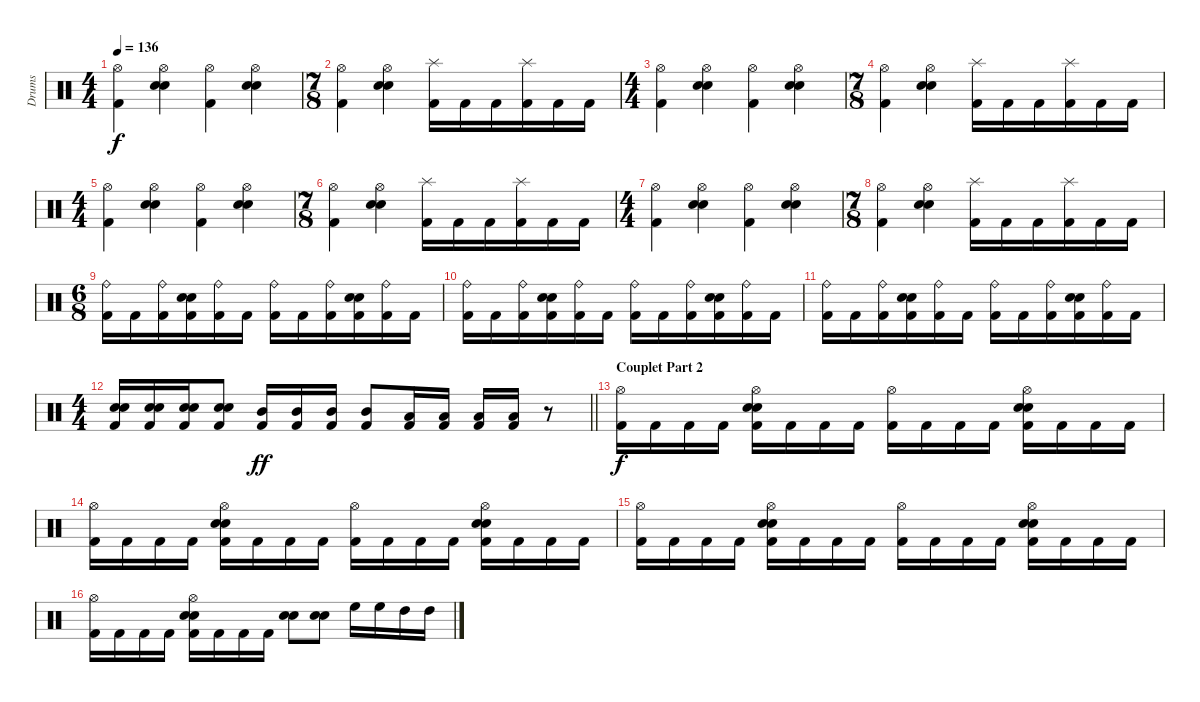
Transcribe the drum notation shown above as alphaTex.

\track ("Drums" "Drums") {instrument percussion}
\staff {score}
\articulation defaults
\ts (4 4)
\tempo 136
\clef neutral
\ks c
("Hi-Hat (open)" "Kick (hit) 2").4{dy f} ("Hi-Hat (open)" "Electric Snare (hit)" "Snare (hit) 2").4 ("Hi-Hat (open)" "Kick (hit) 2").4 ("Hi-Hat (open)" "Electric Snare (hit)" "Snare (hit) 2").4 |
\ts (7 8)
("Hi-Hat (open)" "Kick (hit) 2").4 ("Hi-Hat (open)" "Electric Snare (hit)" "Snare (hit) 2").4 ("Splash (hit)" "Kick (hit) 2").16 "Kick (hit) 2".16 "Kick (hit) 2".16 ("Splash (hit)" "Kick (hit) 2").16 "Kick (hit) 2".16 "Kick (hit) 2".16 |
\ts (4 4)
("Hi-Hat (open)" "Kick (hit) 2").4 ("Hi-Hat (open)" "Electric Snare (hit)" "Snare (hit) 2").4 ("Hi-Hat (open)" "Kick (hit) 2").4 ("Hi-Hat (open)" "Electric Snare (hit)" "Snare (hit) 2").4 |
\ts (7 8)
("Hi-Hat (open)" "Kick (hit) 2").4 ("Hi-Hat (open)" "Electric Snare (hit)" "Snare (hit) 2").4 ("Splash (hit)" "Kick (hit) 2").16 "Kick (hit) 2".16 "Kick (hit) 2".16 ("Splash (hit)" "Kick (hit) 2").16 "Kick (hit) 2".16 "Kick (hit) 2".16 |
\ts (4 4)
("Hi-Hat (open)" "Kick (hit) 2").4 ("Hi-Hat (open)" "Electric Snare (hit)" "Snare (hit) 2").4 ("Hi-Hat (open)" "Kick (hit) 2").4 ("Hi-Hat (open)" "Electric Snare (hit)" "Snare (hit) 2").4 |
\ts (7 8)
("Hi-Hat (open)" "Kick (hit) 2").4 ("Hi-Hat (open)" "Electric Snare (hit)" "Snare (hit) 2").4 ("Splash (hit)" "Kick (hit) 2").16 "Kick (hit) 2".16 "Kick (hit) 2".16 ("Splash (hit)" "Kick (hit) 2").16 "Kick (hit) 2".16 "Kick (hit) 2".16 |
\ts (4 4)
("Hi-Hat (open)" "Kick (hit) 2").4 ("Hi-Hat (open)" "Electric Snare (hit)" "Snare (hit) 2").4 ("Hi-Hat (open)" "Kick (hit) 2").4 ("Hi-Hat (open)" "Electric Snare (hit)" "Snare (hit) 2").4 |
\ts (7 8)
("Hi-Hat (open)" "Kick (hit) 2").4 ("Hi-Hat (open)" "Electric Snare (hit)" "Snare (hit) 2").4 ("Splash (hit)" "Kick (hit) 2").16 "Kick (hit) 2".16 "Kick (hit) 2".16 ("Splash (hit)" "Kick (hit) 2").16 "Kick (hit) 2".16 "Kick (hit) 2".16 |
\ts (6 8)
("Ride (bell)" "Kick (hit) 2").16 "Kick (hit) 2".16 ("Ride (bell)" "Kick (hit) 2").16 ("Electric Snare (hit)" "Snare (hit) 2" "Kick (hit) 2").16 ("Ride (bell)" "Kick (hit) 2").16 "Kick (hit) 2".16 ("Ride (bell)" "Kick (hit) 2").16 "Kick (hit) 2".16 ("Ride (bell)" "Kick (hit) 2").16 ("Electric Snare (hit)" "Snare (hit) 2" "Kick (hit) 2").16 ("Ride (bell)" "Kick (hit) 2").16 "Kick (hit) 2".16 |
("Ride (bell)" "Kick (hit) 2").16 "Kick (hit) 2".16 ("Ride (bell)" "Kick (hit) 2").16 ("Electric Snare (hit)" "Snare (hit) 2" "Kick (hit) 2").16 ("Ride (bell)" "Kick (hit) 2").16 "Kick (hit) 2".16 ("Ride (bell)" "Kick (hit) 2").16 "Kick (hit) 2".16 ("Ride (bell)" "Kick (hit) 2").16 ("Electric Snare (hit)" "Snare (hit) 2" "Kick (hit) 2").16 ("Ride (bell)" "Kick (hit) 2").16 "Kick (hit) 2".16 |
("Ride (bell)" "Kick (hit) 2").16 "Kick (hit) 2".16 ("Ride (bell)" "Kick (hit) 2").16 ("Electric Snare (hit)" "Snare (hit) 2" "Kick (hit) 2").16 ("Ride (bell)" "Kick (hit) 2").16 "Kick (hit) 2".16 ("Ride (bell)" "Kick (hit) 2").16 "Kick (hit) 2".16 ("Ride (bell)" "Kick (hit) 2").16 ("Electric Snare (hit)" "Snare (hit) 2" "Kick (hit) 2").16 ("Ride (bell)" "Kick (hit) 2").16 "Kick (hit) 2".16 |
\ts (4 4)
\barLineRight lightlight
("Electric Snare (hit)" "Snare (hit) 2" "Kick (hit) 2").16 ("Electric Snare (hit)" "Snare (hit) 2" "Kick (hit) 2").16 ("Electric Snare (hit)" "Snare (hit) 2" "Kick (hit) 2").16 ("Electric Snare (hit)" "Snare (hit) 2" "Kick (hit) 2").8 ("Mid Tom (hit)" "Kick (hit) 2").16{dy ff} ("Mid Tom (hit)" "Kick (hit) 2").16 ("Mid Tom (hit)" "Kick (hit) 2").16 ("Mid Tom (hit)" "Kick (hit) 2").8 ("Low Tom (hit)" "Kick (hit) 2").16 ("Low Tom (hit)" "Kick (hit) 2").16 ("Low Tom (hit)" "Kick (hit) 2").16 ("Low Tom (hit)" "Kick (hit) 2").16 r.8 |
\section ("" "Couplet Part 2")
("Hi-Hat (open)" "Kick (hit) 2").16{dy f} "Kick (hit) 2".16 "Kick (hit) 2".16 "Kick (hit) 2".16 ("Hi-Hat (open)" "Electric Snare (hit)" "Snare (hit) 2" "Kick (hit) 2").16 "Kick (hit) 2".16 "Kick (hit) 2".16 "Kick (hit) 2".16 ("Hi-Hat (open)" "Kick (hit) 2").16 "Kick (hit) 2".16 "Kick (hit) 2".16 "Kick (hit) 2".16 ("Hi-Hat (open)" "Electric Snare (hit)" "Snare (hit) 2" "Kick (hit) 2").16 "Kick (hit) 2".16 "Kick (hit) 2".16 "Kick (hit) 2".16 |
("Hi-Hat (open)" "Kick (hit) 2").16 "Kick (hit) 2".16 "Kick (hit) 2".16 "Kick (hit) 2".16 ("Hi-Hat (open)" "Electric Snare (hit)" "Snare (hit) 2" "Kick (hit) 2").16 "Kick (hit) 2".16 "Kick (hit) 2".16 "Kick (hit) 2".16 ("Hi-Hat (open)" "Kick (hit) 2").16 "Kick (hit) 2".16 "Kick (hit) 2".16 "Kick (hit) 2".16 ("Hi-Hat (open)" "Electric Snare (hit)" "Snare (hit) 2" "Kick (hit) 2").16 "Kick (hit) 2".16 "Kick (hit) 2".16 "Kick (hit) 2".16 |
("Hi-Hat (open)" "Kick (hit) 2").16 "Kick (hit) 2".16 "Kick (hit) 2".16 "Kick (hit) 2".16 ("Hi-Hat (open)" "Electric Snare (hit)" "Snare (hit) 2" "Kick (hit) 2").16 "Kick (hit) 2".16 "Kick (hit) 2".16 "Kick (hit) 2".16 ("Hi-Hat (open)" "Kick (hit) 2").16 "Kick (hit) 2".16 "Kick (hit) 2".16 "Kick (hit) 2".16 ("Hi-Hat (open)" "Electric Snare (hit)" "Snare (hit) 2" "Kick (hit) 2").16 "Kick (hit) 2".16 "Kick (hit) 2".16 "Kick (hit) 2".16 |
("Hi-Hat (open)" "Kick (hit) 2").16 "Kick (hit) 2".16 "Kick (hit) 2".16 "Kick (hit) 2".16 ("Hi-Hat (open)" "Electric Snare (hit)" "Snare (hit) 2" "Kick (hit) 2").16 "Kick (hit) 2".16 "Kick (hit) 2".16 "Kick (hit) 2".16 ("Electric Snare (hit)" "Snare (hit) 2").8 ("Electric Snare (hit)" "Snare (hit) 2").8 "High Floor Tom (hit)".16 "High Floor Tom (hit)".16 "High Tom (hit)".16 "High Tom (hit)".16
